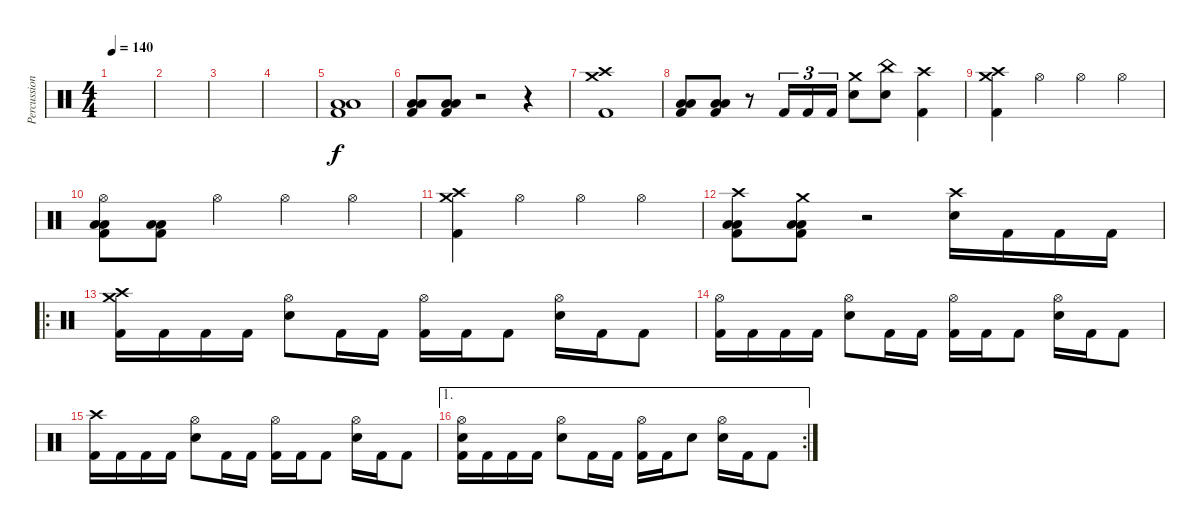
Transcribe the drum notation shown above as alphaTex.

\track ("Percussions" "Percussion") {instrument percussion}
\staff {score}
\articulation defaults
\ts (4 4)
\tempo 140
\clef neutral
\ks c
|
|
|
|
("Low Floor Tom (hit)" "Low Floor Tom (hit)" "Kick (hit) 2").1 |
("Low Floor Tom (hit)" "Low Floor Tom (hit)" "Kick (hit) 2").8 ("Low Floor Tom (hit)" "Low Floor Tom (hit)" "Kick (hit) 2").8 r.2 r.4 |
("Crash high (hit)" "Crash medium (hit)" "Kick (hit) 2").1 |
("Low Floor Tom (hit)" "Low Floor Tom (hit)" "Kick (hit) 2").8 ("Low Floor Tom (hit)" "Low Floor Tom (hit)" "Kick (hit) 2").8 r.8 "Kick (hit) 2".16{tu (3 2)} "Kick (hit) 2".16{tu (3 2)} "Kick (hit) 2".16{tu (3 2)} ("Crash medium (hit)" "Snare (hit) 2").8 ("China (hit)" "Snare (hit) 2").8 ("Crash high (hit)" "Kick (hit) 2").4 |
("Crash high (hit)" "Crash medium (hit)" "Kick (hit) 2").4 "Hi-Hat (open)".4 "Hi-Hat (open)".4 "Hi-Hat (open)".4 |
("Hi-Hat (open)" "Low Floor Tom (hit)" "Low Floor Tom (hit)" "Kick (hit) 2").8 ("Low Floor Tom (hit)" "Low Floor Tom (hit)" "Kick (hit) 2").8 "Hi-Hat (open)".4 "Hi-Hat (open)".4 "Hi-Hat (open)".4 |
("Crash high (hit)" "Crash medium (hit)" "Kick (hit) 2").4 "Hi-Hat (open)".4 "Hi-Hat (open)".4 "Hi-Hat (open)".4 |
("Crash high (hit)" "Low Floor Tom (hit)" "Low Floor Tom (hit)" "Kick (hit) 2").8 ("Crash medium (hit)" "Low Floor Tom (hit)" "Low Floor Tom (hit)" "Kick (hit) 2").8 r.2 ("Crash high (hit)" "Snare (hit) 2").16 "Kick (hit) 2".16 "Kick (hit) 2".16 "Kick (hit) 2".16 |
\ro
("Crash high (hit)" "Crash medium (hit)" "Kick (hit) 2").16 "Kick (hit) 2".16 "Kick (hit) 2".16 "Kick (hit) 2".16 ("Hi-Hat (open)" "Snare (hit) 2").8 "Kick (hit) 2".16 "Kick (hit) 2".16 ("Hi-Hat (open)" "Kick (hit) 2").16 "Kick (hit) 2".16 "Kick (hit) 2".8 ("Hi-Hat (open)" "Snare (hit) 2").16 "Kick (hit) 2".16 "Kick (hit) 2".8 |
("Hi-Hat (open)" "Kick (hit) 2").16 "Kick (hit) 2".16 "Kick (hit) 2".16 "Kick (hit) 2".16 ("Hi-Hat (open)" "Snare (hit) 2").8 "Kick (hit) 2".16 "Kick (hit) 2".16 ("Hi-Hat (open)" "Kick (hit) 2").16 "Kick (hit) 2".16 "Kick (hit) 2".8 ("Hi-Hat (open)" "Snare (hit) 2").16 "Kick (hit) 2".16 "Kick (hit) 2".8 |
("Crash high (hit)" "Kick (hit) 2").16 "Kick (hit) 2".16 "Kick (hit) 2".16 "Kick (hit) 2".16 ("Hi-Hat (open)" "Snare (hit) 2").8 "Kick (hit) 2".16 "Kick (hit) 2".16 ("Hi-Hat (open)" "Kick (hit) 2").16 "Kick (hit) 2".16 "Kick (hit) 2".8 ("Hi-Hat (open)" "Snare (hit) 2").16 "Kick (hit) 2".16 "Kick (hit) 2".8 |
\ae 1
\rc 2
("Hi-Hat (open)" "Snare (hit) 2" "Kick (hit) 2").16 "Kick (hit) 2".16 "Kick (hit) 2".16 "Kick (hit) 2".16 ("Hi-Hat (open)" "Snare (hit) 2").8 "Kick (hit) 2".16 "Kick (hit) 2".16 ("Hi-Hat (open)" "Kick (hit) 2").16 "Kick (hit) 2".16 "Snare (hit) 2".8 ("Hi-Hat (open)" "Snare (hit) 2").16 "Kick (hit) 2".16 "Kick (hit) 2".8
